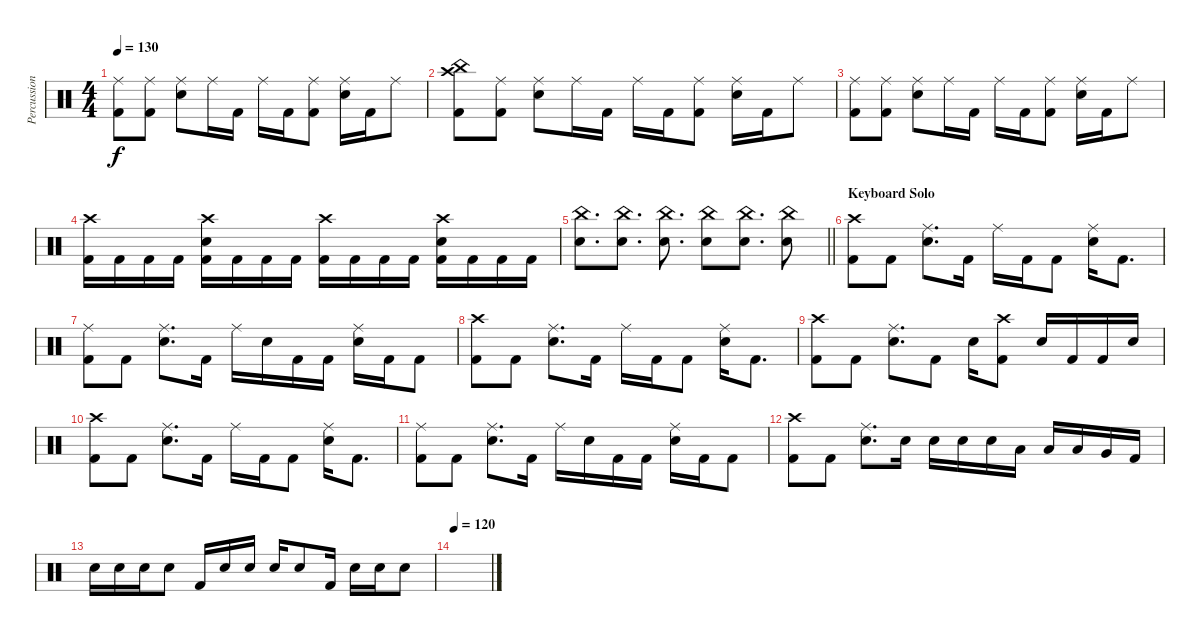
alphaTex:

\track ("Percussion" "Percussion") {instrument percussion}
\staff {score}
\articulation defaults
\ts (4 4)
\tempo 130
\clef neutral
\ks c
("Kick (hit) 2" "Ride (middle)").8{dy f} ("Kick (hit) 2" "Ride (middle)").8 ("Snare (hit) 2" "Ride (middle)").8 "Ride (middle)".16 "Kick (hit) 2".16 "Ride (middle)".16 "Kick (hit) 2".16 ("Kick (hit) 2" "Ride (middle)").8 ("Snare (hit) 2" "Ride (middle)").16 "Kick (hit) 2".16 "Ride (middle)".8 |
("Kick (hit) 2" "Crash high (hit)" "China (hit)").8 ("Kick (hit) 2" "Ride (middle)").8 ("Snare (hit) 2" "Ride (middle)").8 "Ride (middle)".16 "Kick (hit) 2".16 "Ride (middle)".16 "Kick (hit) 2".16 ("Kick (hit) 2" "Ride (middle)").8 ("Snare (hit) 2" "Ride (middle)").16 "Kick (hit) 2".16 "Ride (middle)".8 |
("Kick (hit) 2" "Ride (middle)").8 ("Kick (hit) 2" "Ride (middle)").8 ("Snare (hit) 2" "Ride (middle)").8 "Ride (middle)".16 "Kick (hit) 2".16 "Ride (middle)".16 "Kick (hit) 2".16 ("Kick (hit) 2" "Ride (middle)").8 ("Snare (hit) 2" "Ride (middle)").16 "Kick (hit) 2".16 "Ride (middle)".8 |
("Kick (hit) 2" "Crash high (hit)").16 "Kick (hit) 2".16 "Kick (hit) 2".16 "Kick (hit) 2".16 ("Kick (hit) 2" "Snare (hit) 2" "Crash high (hit)").16 "Kick (hit) 2".16 "Kick (hit) 2".16 "Kick (hit) 2".16 ("Kick (hit) 2" "Crash high (hit)").16 "Kick (hit) 2".16 "Kick (hit) 2".16 "Kick (hit) 2".16 ("Kick (hit) 2" "Snare (hit) 2" "Crash high (hit)").16 "Kick (hit) 2".16 "Kick (hit) 2".16 "Kick (hit) 2".16 |
\barLineRight lightlight
("Snare (hit) 2" "China (hit)").8{d} ("Snare (hit) 2" "China (hit)").8{d} ("Snare (hit) 2" "China (hit)").8{d} ("China (hit)" "Snare (hit) 2").8 ("Snare (hit) 2" "China (hit)").8{d} ("Snare (hit) 2" "China (hit)").8 |
\section ("" "Keyboard Solo")
("Kick (hit) 2" "Crash high (hit)").8 "Kick (hit) 2".8 ("Snare (hit) 2" "Ride (middle)").8{d} "Kick (hit) 2".16 "Ride (middle)".16 "Kick (hit) 2".16 "Kick (hit) 2".8 ("Snare (hit) 2" "Ride (middle)").16 "Kick (hit) 2".8{d} |
("Kick (hit) 2" "Ride (middle)").8 "Kick (hit) 2".8 ("Snare (hit) 2" "Ride (middle)").8{d} "Kick (hit) 2".16 "Ride (middle)".16 "Snare (hit) 2".16 "Kick (hit) 2".16 "Kick (hit) 2".16 ("Snare (hit) 2" "Ride (middle)").16 "Kick (hit) 2".16 "Kick (hit) 2".8 |
("Kick (hit) 2" "Crash high (hit)").8 "Kick (hit) 2".8 ("Snare (hit) 2" "Ride (middle)").8{d} "Kick (hit) 2".16 "Ride (middle)".16 "Kick (hit) 2".16 "Kick (hit) 2".8 ("Snare (hit) 2" "Ride (middle)").16 "Kick (hit) 2".8{d} |
("Kick (hit) 2" "Crash high (hit)").8 "Kick (hit) 2".8 ("Snare (hit) 2" "Ride (middle)").8{d} "Kick (hit) 2".8 "Snare (hit) 2".16 ("Kick (hit) 2" "Crash high (hit)").8 "Snare (hit) 2".16 "Kick (hit) 2".16 "Kick (hit) 2".16 "Snare (hit) 2".16 |
("Kick (hit) 2" "Crash high (hit)").8 "Kick (hit) 2".8 ("Snare (hit) 2" "Ride (middle)").8{d} "Kick (hit) 2".16 "Ride (middle)".16 "Kick (hit) 2".16 "Kick (hit) 2".8 ("Snare (hit) 2" "Ride (middle)").16 "Kick (hit) 2".8{d} |
("Kick (hit) 2" "Ride (middle)").8 "Kick (hit) 2".8 ("Snare (hit) 2" "Ride (middle)").8{d} "Kick (hit) 2".16 "Ride (middle)".16 "Snare (hit) 2".16 "Kick (hit) 2".16 "Kick (hit) 2".16 ("Snare (hit) 2" "Ride (middle)").16 "Kick (hit) 2".16 "Kick (hit) 2".8 |
("Kick (hit) 2" "Crash high (hit)").8 "Kick (hit) 2".8 ("Snare (hit) 2" "Ride (middle)").8{d} "Snare (hit) 2".16 "Snare (hit) 2".16 "Snare (hit) 2".16 "Snare (hit) 2".16 "Low Tom (hit)".16 "Low Tom (hit)".16 "Low Tom (hit)".16 "Very Low Tom (hit)".16 "Kick (hit) 2".16 |
"Snare (hit) 2".16 "Snare (hit) 2".16 "Snare (hit) 2".16 "Snare (hit) 2".8 "Kick (hit) 2".16 "Snare (hit) 2".16 "Snare (hit) 2".16 "Snare (hit) 2".16 "Snare (hit) 2".8 "Kick (hit) 2".16 "Snare (hit) 2".16 "Snare (hit) 2".16 "Snare (hit) 2".8 |
\tempo 120
